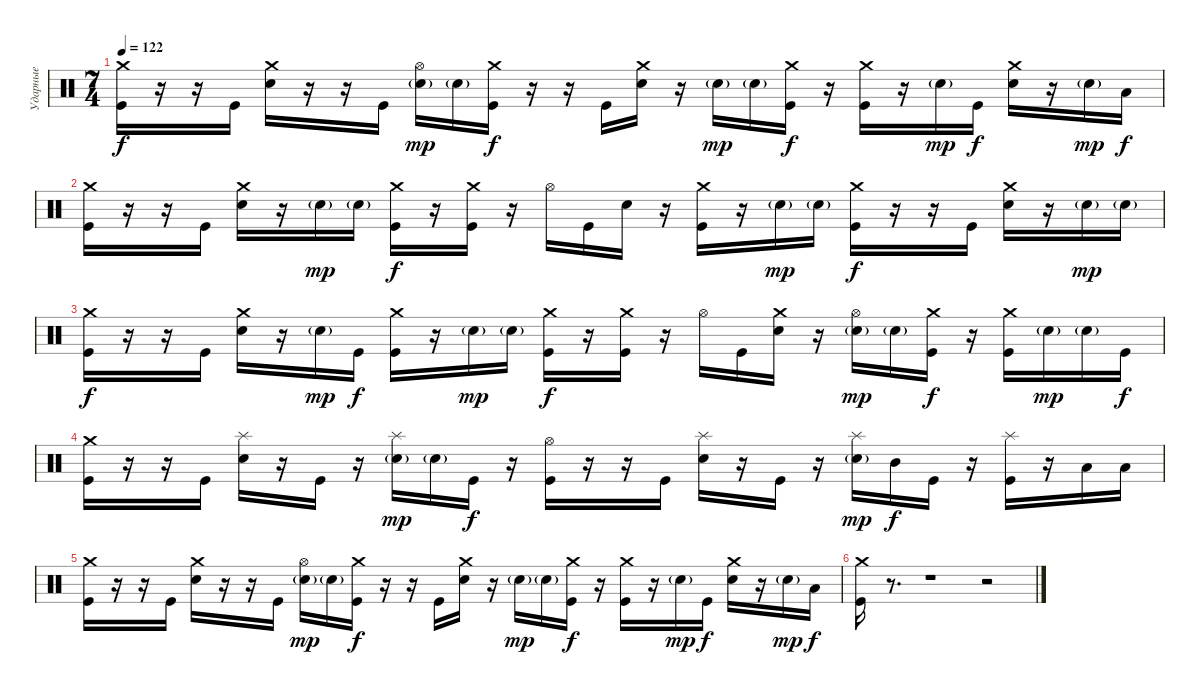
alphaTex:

\track ("Ударные" "Ударные") {instrument percussion}
\staff {score}
\articulation defaults
\ts (7 4)
\tempo 122
\clef neutral
\ks c
("Crash medium (hit)" "Kick (hit)").16{dy f} r.16 r.16 "Kick (hit)".16 ("Crash medium (hit)" "Electric Snare (hit)").16 r.16 r.16 "Kick (hit)".16 ("Hi-Hat (open)" "Electric Snare (hit)"{g}).16{dy mp} "Electric Snare (hit)"{g}.16 ("Crash medium (hit)" "Kick (hit)").16{dy f} r.16 r.16 "Kick (hit)".16 ("Crash medium (hit)" "Electric Snare (hit)").16 r.16 "Electric Snare (hit)"{g}.16{dy mp} "Electric Snare (hit)"{g}.16 ("Crash medium (hit)" "Kick (hit)").16{dy f} r.16 ("Crash medium (hit)" "Kick (hit)").16 r.16 "Electric Snare (hit)"{g}.16{dy mp} "Kick (hit)".16{dy f} ("Crash medium (hit)" "Electric Snare (hit)").16 r.16 "Electric Snare (hit)"{g}.16{dy mp} "Low Tom (hit)".16{dy f} |
("Crash medium (hit)" "Kick (hit)").16 r.16 r.16 "Kick (hit)".16 ("Crash medium (hit)" "Electric Snare (hit)").16 r.16 "Electric Snare (hit)"{g}.16{dy mp} "Electric Snare (hit)"{g}.16 ("Crash medium (hit)" "Kick (hit)").16{dy f} r.16 ("Crash medium (hit)" "Kick (hit)").16 r.16 "Hi-Hat (open)".16 "Kick (hit)".16 "Electric Snare (hit)".16 r.16 ("Crash medium (hit)" "Kick (hit)").16 r.16 "Electric Snare (hit)"{g}.16{dy mp} "Electric Snare (hit)"{g}.16 ("Crash medium (hit)" "Kick (hit)").16{dy f} r.16 r.16 "Kick (hit)".16 ("Crash medium (hit)" "Electric Snare (hit)").16 r.16 "Electric Snare (hit)"{g}.16{dy mp} "Electric Snare (hit)"{g}.16 |
("Crash medium (hit)" "Kick (hit)").16{dy f} r.16 r.16 "Kick (hit)".16 ("Crash medium (hit)" "Electric Snare (hit)").16 r.16 "Electric Snare (hit)"{g}.16{dy mp} "Kick (hit)".16{dy f} ("Crash medium (hit)" "Kick (hit)").16 r.16 "Electric Snare (hit)"{g}.16{dy mp} "Electric Snare (hit)"{g}.16 ("Crash medium (hit)" "Kick (hit)").16{dy f} r.16 ("Crash medium (hit)" "Kick (hit)").16 r.16 "Hi-Hat (open)".16 "Kick (hit)".16 ("Crash medium (hit)" "Electric Snare (hit)").16 r.16 ("Hi-Hat (open)" "Electric Snare (hit)"{g}).16{dy mp} "Electric Snare (hit)"{g}.16 ("Crash medium (hit)" "Kick (hit)").16{dy f} r.16 ("Crash medium (hit)" "Kick (hit)").16 "Electric Snare (hit)"{g}.16{dy mp} "Electric Snare (hit)"{g}.16 "Kick (hit)".16{dy f} |
("Crash medium (hit)" "Kick (hit)").16 r.16 r.16 "Kick (hit)".16 ("Splash (hit)" "Electric Snare (hit)").16 r.16 "Kick (hit)".16 r.16 ("Splash (hit)" "Electric Snare (hit)"{g}).16{dy mp} "Electric Snare (hit)"{g}.16 "Kick (hit)".16{dy f} r.16 ("Hi-Hat (open)" "Kick (hit)").16 r.16 r.16 "Kick (hit)".16 ("Splash (hit)" "Electric Snare (hit)").16 r.16 "Kick (hit)".16 r.16 ("Splash (hit)" "Electric Snare (hit)"{g}).16{dy mp} "Mid Tom (hit)".16{dy f} "Kick (hit)".16 r.16 ("Splash (hit)" "Kick (hit)").16 r.16 "Low Tom (hit)".16 "Low Tom (hit)".16 |
("Crash medium (hit)" "Kick (hit)").16 r.16 r.16 "Kick (hit)".16 ("Crash medium (hit)" "Electric Snare (hit)").16 r.16 r.16 "Kick (hit)".16 ("Hi-Hat (open)" "Electric Snare (hit)"{g}).16{dy mp} "Electric Snare (hit)"{g}.16 ("Crash medium (hit)" "Kick (hit)").16{dy f} r.16 r.16 "Kick (hit)".16 ("Crash medium (hit)" "Electric Snare (hit)").16 r.16 "Electric Snare (hit)"{g}.16{dy mp} "Electric Snare (hit)"{g}.16 ("Crash medium (hit)" "Kick (hit)").16{dy f} r.16 ("Crash medium (hit)" "Kick (hit)").16 r.16 "Electric Snare (hit)"{g}.16{dy mp} "Kick (hit)".16{dy f} ("Crash medium (hit)" "Electric Snare (hit)").16 r.16 "Electric Snare (hit)"{g}.16{dy mp} "Low Tom (hit)".16{dy f} |
("Crash medium (hit)" "Kick (hit)").16 r.8{d} r.1 r.2
